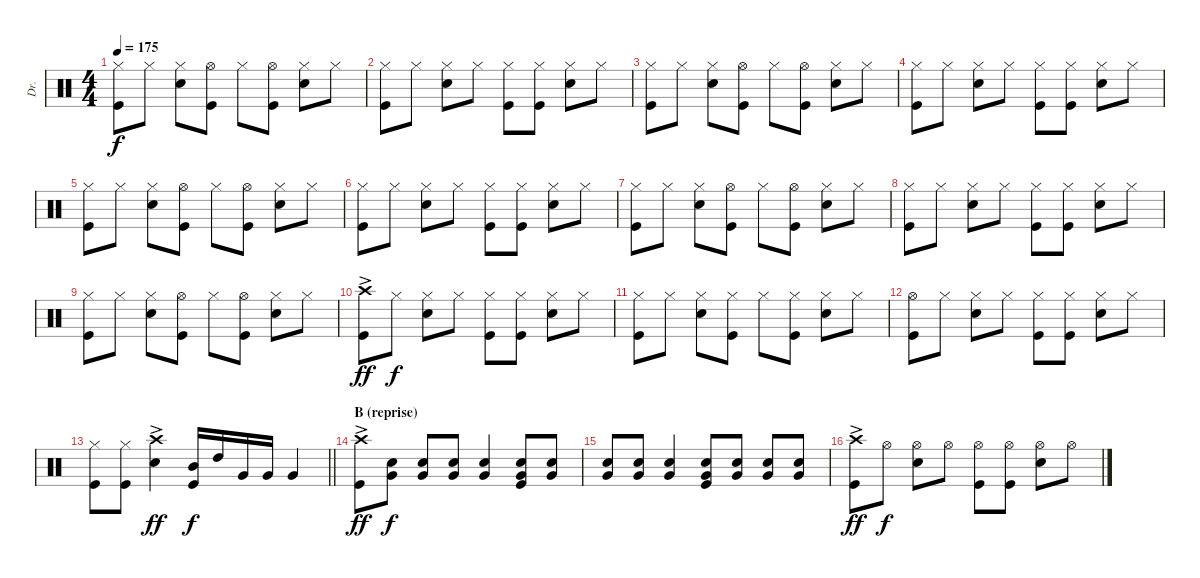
\track ("Dr." "Dr.") {instrument percussion}
\staff {score}
\articulation defaults
\ts (4 4)
\tempo 175
\clef neutral
\ks c
("Hi-Hat (closed)" "Kick (hit)").8{dy f} "Hi-Hat (closed)".8 ("Hi-Hat (closed)" "Snare (hit) 2").8 ("Hi-Hat (open)" "Kick (hit)").8 "Hi-Hat (closed)".8 ("Hi-Hat (open)" "Kick (hit)").8 ("Hi-Hat (closed)" "Snare (hit) 2").8 "Hi-Hat (closed)".8 |
("Hi-Hat (closed)" "Kick (hit)").8 "Hi-Hat (closed)".8 ("Hi-Hat (closed)" "Snare (hit) 2").8 "Hi-Hat (closed)".8 ("Hi-Hat (closed)" "Kick (hit)").8 ("Hi-Hat (closed)" "Kick (hit)").8 ("Hi-Hat (closed)" "Snare (hit) 2").8 "Hi-Hat (closed)".8 |
("Hi-Hat (closed)" "Kick (hit)").8 "Hi-Hat (closed)".8 ("Hi-Hat (closed)" "Snare (hit) 2").8 ("Hi-Hat (open)" "Kick (hit)").8 "Hi-Hat (closed)".8 ("Hi-Hat (open)" "Kick (hit)").8 ("Hi-Hat (closed)" "Snare (hit) 2").8 "Hi-Hat (closed)".8 |
("Hi-Hat (closed)" "Kick (hit)").8 "Hi-Hat (closed)".8 ("Hi-Hat (closed)" "Snare (hit) 2").8 "Hi-Hat (closed)".8 ("Hi-Hat (closed)" "Kick (hit)").8 ("Hi-Hat (closed)" "Kick (hit)").8 ("Hi-Hat (closed)" "Snare (hit) 2").8 "Hi-Hat (closed)".8 |
("Hi-Hat (closed)" "Kick (hit)").8 "Hi-Hat (closed)".8 ("Hi-Hat (closed)" "Snare (hit) 2").8 ("Hi-Hat (open)" "Kick (hit)").8 "Hi-Hat (closed)".8 ("Hi-Hat (open)" "Kick (hit)").8 ("Hi-Hat (closed)" "Snare (hit) 2").8 "Hi-Hat (closed)".8 |
("Hi-Hat (closed)" "Kick (hit)").8 "Hi-Hat (closed)".8 ("Hi-Hat (closed)" "Snare (hit) 2").8 "Hi-Hat (closed)".8 ("Hi-Hat (closed)" "Kick (hit)").8 ("Hi-Hat (closed)" "Kick (hit)").8 ("Hi-Hat (closed)" "Snare (hit) 2").8 "Hi-Hat (closed)".8 |
("Hi-Hat (closed)" "Kick (hit)").8 "Hi-Hat (closed)".8 ("Hi-Hat (closed)" "Snare (hit) 2").8 ("Hi-Hat (open)" "Kick (hit)").8 "Hi-Hat (closed)".8 ("Hi-Hat (open)" "Kick (hit)").8 ("Hi-Hat (closed)" "Snare (hit) 2").8 "Hi-Hat (closed)".8 |
("Hi-Hat (closed)" "Kick (hit)").8 "Hi-Hat (closed)".8 ("Hi-Hat (closed)" "Snare (hit) 2").8 "Hi-Hat (closed)".8 ("Hi-Hat (closed)" "Kick (hit)").8 ("Hi-Hat (closed)" "Kick (hit)").8 ("Hi-Hat (closed)" "Snare (hit) 2").8 "Hi-Hat (closed)".8 |
("Hi-Hat (closed)" "Kick (hit)").8 "Hi-Hat (closed)".8 ("Hi-Hat (closed)" "Snare (hit) 2").8 ("Hi-Hat (open)" "Kick (hit)").8 "Hi-Hat (closed)".8 ("Hi-Hat (open)" "Kick (hit)").8 ("Hi-Hat (closed)" "Snare (hit) 2").8 "Hi-Hat (closed)".8 |
("Crash high (hit)"{ac} "Kick (hit)"{ac}).8{dy ff} "Hi-Hat (closed)".8{dy f} ("Hi-Hat (closed)" "Snare (hit) 2").8 "Hi-Hat (closed)".8 ("Hi-Hat (closed)" "Kick (hit)").8 ("Hi-Hat (closed)" "Kick (hit)").8 ("Hi-Hat (closed)" "Snare (hit) 2").8 "Hi-Hat (closed)".8 |
("Hi-Hat (closed)" "Kick (hit)").8 "Hi-Hat (closed)".8 ("Hi-Hat (closed)" "Snare (hit) 2").8 ("Hi-Hat (closed)" "Kick (hit)").8 "Hi-Hat (closed)".8 ("Hi-Hat (closed)" "Kick (hit)").8 ("Hi-Hat (closed)" "Snare (hit) 2").8 "Hi-Hat (closed)".8 |
("Hi-Hat (open)" "Kick (hit)").8 "Hi-Hat (closed)".8 ("Hi-Hat (closed)" "Snare (hit) 2").8 "Hi-Hat (closed)".8 ("Hi-Hat (closed)" "Kick (hit)").8 ("Hi-Hat (closed)" "Kick (hit)").8 ("Hi-Hat (closed)" "Snare (hit) 2").8 "Hi-Hat (closed)".8 |
\barLineRight lightlight
("Hi-Hat (closed)" "Kick (hit)").8 ("Hi-Hat (closed)" "Kick (hit)").8 ("Crash high (hit)"{ac} "Snare (hit) 2"{ac}).4{dy ff} ("Mid Tom (hit)" "Kick (hit)").16{dy f} "High Tom (hit)".16 "Very Low Tom (hit)".16 "Very Low Tom (hit)".16 "Very Low Tom (hit)".4 |
\section ("" "B (reprise)")
("Crash high (hit)"{ac} "Kick (hit)"{ac}).8{dy ff} ("Very Low Tom (hit)" "Snare (hit) 2").8{dy f} ("Very Low Tom (hit)" "Snare (hit) 2").8 ("Very Low Tom (hit)" "Snare (hit) 2").8 ("Very Low Tom (hit)" "Snare (hit) 2").4 ("Very Low Tom (hit)" "Snare (hit) 2" "Kick (hit)").8 ("Very Low Tom (hit)" "Snare (hit) 2").8 |
("Very Low Tom (hit)" "Snare (hit) 2").8 ("Very Low Tom (hit)" "Snare (hit) 2").8 ("Very Low Tom (hit)" "Snare (hit) 2").4 ("Very Low Tom (hit)" "Snare (hit) 2" "Kick (hit)").8 ("Very Low Tom (hit)" "Snare (hit) 2").8 ("Very Low Tom (hit)" "Snare (hit) 2").8 ("Very Low Tom (hit)" "Snare (hit) 2").8 |
("Crash high (hit)"{ac} "Kick (hit)"{ac}).8{dy ff} "Hi-Hat (open)".8{dy f} ("Hi-Hat (open)" "Snare (hit) 2").8 "Hi-Hat (open)".8 ("Hi-Hat (open)" "Kick (hit)").8 ("Hi-Hat (open)" "Kick (hit)").8 ("Hi-Hat (open)" "Snare (hit) 2").8 "Hi-Hat (open)".8
